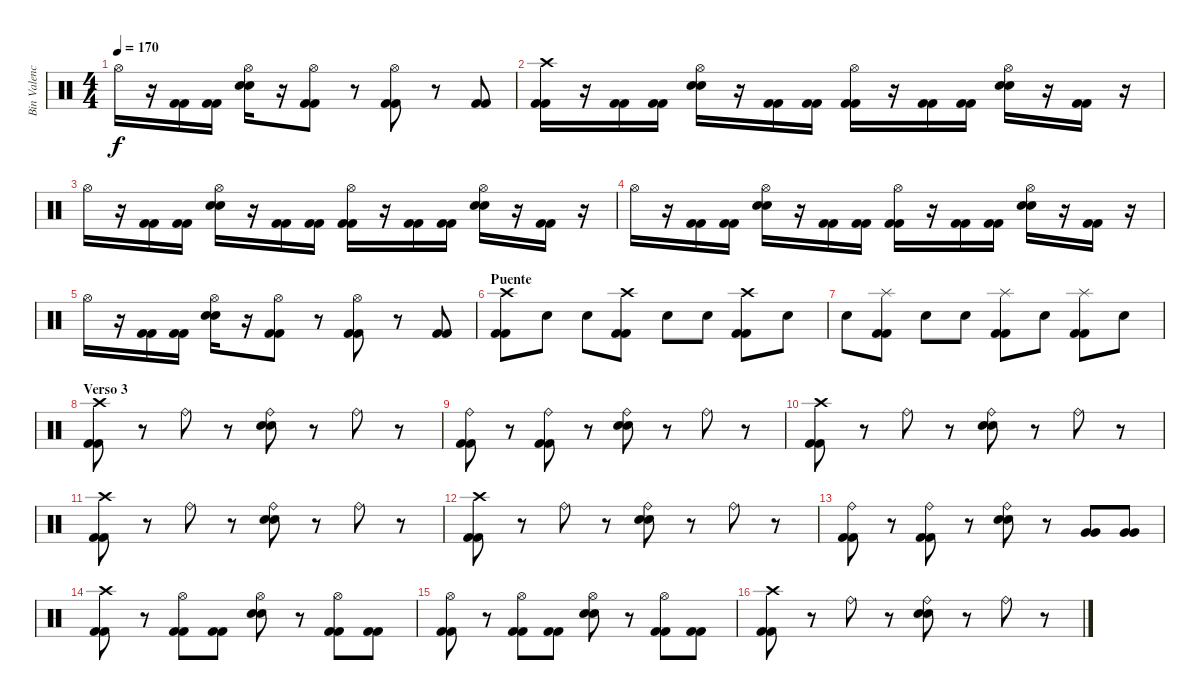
\track ("Bin Valencia (Bateria)" "Bin Valenc") {instrument percussion}
\staff {score}
\articulation defaults
\ts (4 4)
\tempo 170
\clef neutral
\ks c "Hi-Hat (open)".16{dy f}
r.16 ("Kick (hit) 2" "Kick (hit) 2").16 ("Kick (hit) 2" "Kick (hit) 2").16 ("Hi-Hat (open)" "Snare (hit) 2" "Snare (hit) 2").16 r.16 ("Hi-Hat (open)" "Kick (hit) 2" "Kick (hit) 2").8 r.8 ("Hi-Hat (open)" "Kick (hit) 2" "Kick (hit) 2").8 r.8 ("Kick (hit) 2" "Kick (hit) 2").8 |
("Crash high (hit)" "Kick (hit) 2" "Kick (hit) 2").16 r.16 ("Kick (hit) 2" "Kick (hit) 2").16 ("Kick (hit) 2" "Kick (hit) 2").16 ("Hi-Hat (open)" "Snare (hit) 2" "Snare (hit) 2").16 r.16 ("Kick (hit) 2" "Kick (hit) 2").16 ("Kick (hit) 2" "Kick (hit) 2").16 ("Hi-Hat (open)" "Kick (hit) 2" "Kick (hit) 2").16 r.16 ("Kick (hit) 2" "Kick (hit) 2").16 ("Kick (hit) 2" "Kick (hit) 2").16 ("Hi-Hat (open)" "Snare (hit) 2" "Snare (hit) 2").16 r.16 ("Kick (hit) 2" "Kick (hit) 2").16 r.16 |
"Hi-Hat (open)".16 r.16 ("Kick (hit) 2" "Kick (hit) 2").16 ("Kick (hit) 2" "Kick (hit) 2").16 ("Hi-Hat (open)" "Snare (hit) 2" "Snare (hit) 2").16 r.16 ("Kick (hit) 2" "Kick (hit) 2").16 ("Kick (hit) 2" "Kick (hit) 2").16 ("Hi-Hat (open)" "Kick (hit) 2" "Kick (hit) 2").16 r.16 ("Kick (hit) 2" "Kick (hit) 2").16 ("Kick (hit) 2" "Kick (hit) 2").16 ("Hi-Hat (open)" "Snare (hit) 2" "Snare (hit) 2").16 r.16 ("Kick (hit) 2" "Kick (hit) 2").16 r.16 |
"Hi-Hat (open)".16 r.16 ("Kick (hit) 2" "Kick (hit) 2").16 ("Kick (hit) 2" "Kick (hit) 2").16 ("Hi-Hat (open)" "Snare (hit) 2" "Snare (hit) 2").16 r.16 ("Kick (hit) 2" "Kick (hit) 2").16 ("Kick (hit) 2" "Kick (hit) 2").16 ("Hi-Hat (open)" "Kick (hit) 2" "Kick (hit) 2").16 r.16 ("Kick (hit) 2" "Kick (hit) 2").16 ("Kick (hit) 2" "Kick (hit) 2").16 ("Hi-Hat (open)" "Snare (hit) 2" "Snare (hit) 2").16 r.16 ("Kick (hit) 2" "Kick (hit) 2").16 r.16 |
"Hi-Hat (open)".16 r.16 ("Kick (hit) 2" "Kick (hit) 2").16 ("Kick (hit) 2" "Kick (hit) 2").16 ("Hi-Hat (open)" "Snare (hit) 2" "Snare (hit) 2").16 r.16 ("Hi-Hat (open)" "Kick (hit) 2" "Kick (hit) 2").8 r.8 ("Hi-Hat (open)" "Kick (hit) 2" "Kick (hit) 2").8 r.8 ("Kick (hit) 2" "Kick (hit) 2").8 |
\section ("" "Puente")
("Crash high (hit)" "Kick (hit) 2" "Kick (hit) 2").8 "Snare (hit) 2".8 "Snare (hit) 2".8 ("Crash high (hit)" "Kick (hit) 2" "Kick (hit) 2").8 "Snare (hit) 2".8 "Snare (hit) 2".8 ("Crash high (hit)" "Kick (hit) 2" "Kick (hit) 2").8 "Snare (hit) 2".8 |
"Snare (hit) 2".8 ("Splash (hit)" "Kick (hit) 2" "Kick (hit) 2").8 "Snare (hit) 2".8 "Snare (hit) 2".8 ("Splash (hit)" "Kick (hit) 2" "Kick (hit) 2").8 "Snare (hit) 2".8 ("Splash (hit)" "Kick (hit) 2" "Kick (hit) 2").8 "Snare (hit) 2".8 |
\section ("" "Verso 3")
("Crash high (hit)" "Kick (hit) 2" "Kick (hit) 2").8 r.8 "Ride (bell)".8 r.8 ("Ride (bell)" "Snare (hit) 2" "Snare (hit) 2").8 r.8 "Ride (bell)".8 r.8 |
("Ride (bell)" "Kick (hit) 2" "Kick (hit) 2").8 r.8 ("Ride (bell)" "Kick (hit) 2" "Kick (hit) 2").8 r.8 ("Ride (bell)" "Snare (hit) 2" "Snare (hit) 2").8 r.8 "Ride (bell)".8 r.8 |
("Crash high (hit)" "Kick (hit) 2" "Kick (hit) 2").8 r.8 "Ride (bell)".8 r.8 ("Ride (bell)" "Snare (hit) 2" "Snare (hit) 2").8 r.8 "Ride (bell)".8 r.8 |
("Crash high (hit)" "Kick (hit) 2" "Kick (hit) 2").8 r.8 "Ride (bell)".8 r.8 ("Ride (bell)" "Snare (hit) 2" "Snare (hit) 2").8 r.8 "Ride (bell)".8 r.8 |
("Crash high (hit)" "Kick (hit) 2" "Kick (hit) 2").8 r.8 "Ride (bell)".8 r.8 ("Ride (bell)" "Snare (hit) 2" "Snare (hit) 2").8 r.8 "Ride (bell)".8 r.8 |
("Ride (bell)" "Kick (hit) 2" "Kick (hit) 2").8 r.8 ("Ride (bell)" "Kick (hit) 2" "Kick (hit) 2").8 r.8 ("Ride (bell)" "Snare (hit) 2" "Snare (hit) 2").8 r.8 ("Very Low Tom (hit)" "Very Low Tom (hit)").8 ("Very Low Tom (hit)" "Very Low Tom (hit)").8 |
("Crash high (hit)" "Kick (hit) 2" "Kick (hit) 2").8 r.8 ("Hi-Hat (open)" "Kick (hit) 2" "Kick (hit) 2").8 ("Kick (hit) 2" "Kick (hit) 2").8 ("Hi-Hat (open)" "Snare (hit) 2" "Snare (hit) 2").8 r.8 ("Hi-Hat (open)" "Kick (hit) 2" "Kick (hit) 2").8 ("Kick (hit) 2" "Kick (hit) 2").8 |
("Hi-Hat (open)" "Kick (hit) 2" "Kick (hit) 2").8 r.8 ("Hi-Hat (open)" "Kick (hit) 2" "Kick (hit) 2").8 ("Kick (hit) 2" "Kick (hit) 2").8 ("Hi-Hat (open)" "Snare (hit) 2" "Snare (hit) 2").8 r.8 ("Hi-Hat (open)" "Kick (hit) 2" "Kick (hit) 2").8 ("Kick (hit) 2" "Kick (hit) 2").8 |
("Crash high (hit)" "Kick (hit) 2" "Kick (hit) 2").8 r.8 "Ride (bell)".8 r.8 ("Ride (bell)" "Snare (hit) 2" "Snare (hit) 2").8 r.8 "Ride (bell)".8 r.8
